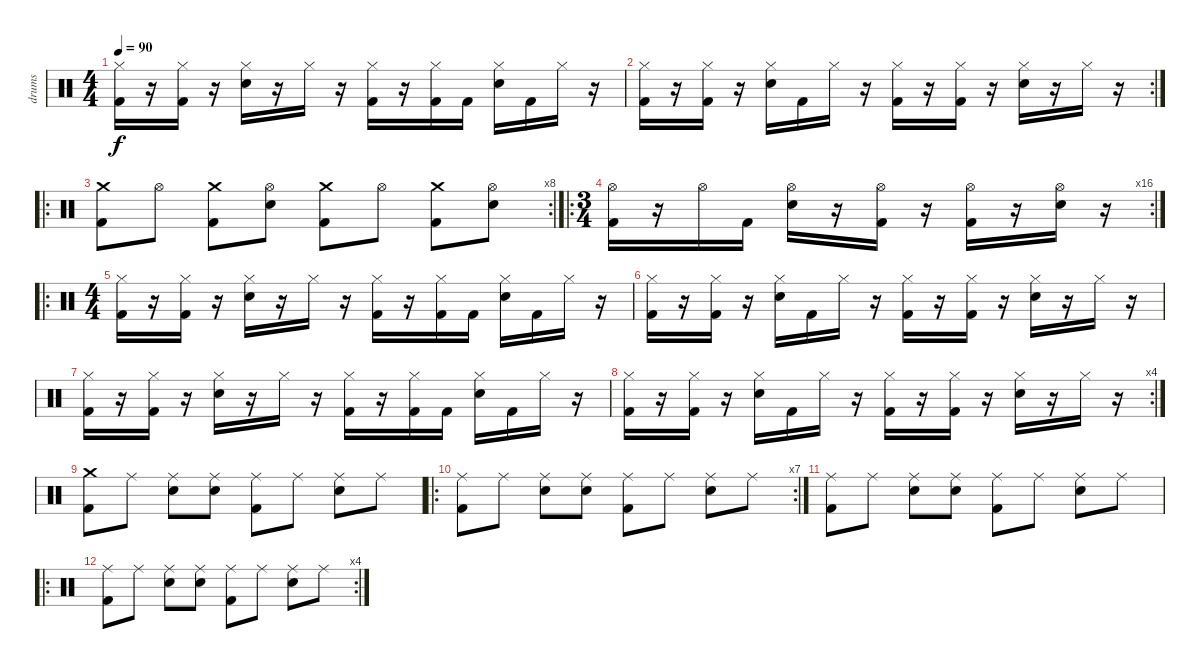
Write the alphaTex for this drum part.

\track ("drums" "drums") {instrument percussion}
\staff {score}
\articulation defaults
\ts (4 4)
\tempo 90
\clef neutral
\ks c
("Hi-Hat (closed)" "Kick (hit) 2").16{dy f} r.16 ("Hi-Hat (closed)" "Kick (hit) 2").16 r.16 ("Hi-Hat (closed)" "Electric Snare (hit)").16 r.16 "Hi-Hat (closed)".16 r.16 ("Hi-Hat (closed)" "Kick (hit) 2").16 r.16 ("Hi-Hat (closed)" "Kick (hit) 2").16 "Kick (hit) 2".16 ("Hi-Hat (closed)" "Electric Snare (hit)").16 "Kick (hit) 2".16 "Hi-Hat (closed)".16 r.16 |
\rc 2
("Hi-Hat (closed)" "Kick (hit) 2").16 r.16 ("Hi-Hat (closed)" "Kick (hit) 2").16 r.16 ("Hi-Hat (closed)" "Electric Snare (hit)").16 "Kick (hit) 2".16 "Hi-Hat (closed)".16 r.16 ("Hi-Hat (closed)" "Kick (hit) 2").16 r.16 ("Hi-Hat (closed)" "Kick (hit) 2").16 r.16 ("Hi-Hat (closed)" "Electric Snare (hit)").16 r.16 "Hi-Hat (closed)".16 r.16 |
\ro
\rc 8
("Crash medium (hit)" "Kick (hit) 2").8 "Hi-Hat (open)".8 ("Crash medium (hit)" "Kick (hit) 2").8 ("Hi-Hat (open)" "Electric Snare (hit)").8 ("Crash medium (hit)" "Kick (hit) 2").8 "Hi-Hat (open)".8 ("Crash medium (hit)" "Kick (hit) 2").8 ("Hi-Hat (open)" "Electric Snare (hit)").8 |
\ro
\rc 16
\ts (3 4)
("Hi-Hat (open)" "Kick (hit) 2").16 r.16 "Hi-Hat (open)".16 "Kick (hit) 2".16 ("Hi-Hat (open)" "Electric Snare (hit)").16 r.16 ("Hi-Hat (open)" "Kick (hit) 2").16 r.16 ("Hi-Hat (open)" "Kick (hit) 2").16 r.16 ("Hi-Hat (open)" "Electric Snare (hit)").16 r.16 |
\ro
\ts (4 4)
("Hi-Hat (closed)" "Kick (hit) 2").16 r.16 ("Hi-Hat (closed)" "Kick (hit) 2").16 r.16 ("Hi-Hat (closed)" "Electric Snare (hit)").16 r.16 "Hi-Hat (closed)".16 r.16 ("Hi-Hat (closed)" "Kick (hit) 2").16 r.16 ("Hi-Hat (closed)" "Kick (hit) 2").16 "Kick (hit) 2".16 ("Hi-Hat (closed)" "Electric Snare (hit)").16 "Kick (hit) 2".16 "Hi-Hat (closed)".16 r.16 |
("Hi-Hat (closed)" "Kick (hit) 2").16 r.16 ("Hi-Hat (closed)" "Kick (hit) 2").16 r.16 ("Hi-Hat (closed)" "Electric Snare (hit)").16 "Kick (hit) 2".16 "Hi-Hat (closed)".16 r.16 ("Hi-Hat (closed)" "Kick (hit) 2").16 r.16 ("Hi-Hat (closed)" "Kick (hit) 2").16 r.16 ("Hi-Hat (closed)" "Electric Snare (hit)").16 r.16 "Hi-Hat (closed)".16 r.16 |
("Hi-Hat (closed)" "Kick (hit) 2").16 r.16 ("Hi-Hat (closed)" "Kick (hit) 2").16 r.16 ("Hi-Hat (closed)" "Electric Snare (hit)").16 r.16 "Hi-Hat (closed)".16 r.16 ("Hi-Hat (closed)" "Kick (hit) 2").16 r.16 ("Hi-Hat (closed)" "Kick (hit) 2").16 "Kick (hit) 2".16 ("Hi-Hat (closed)" "Electric Snare (hit)").16 "Kick (hit) 2".16 "Hi-Hat (closed)".16 r.16 |
\rc 4
("Hi-Hat (closed)" "Kick (hit) 2").16 r.16 ("Hi-Hat (closed)" "Kick (hit) 2").16 r.16 ("Hi-Hat (closed)" "Electric Snare (hit)").16 "Kick (hit) 2".16 "Hi-Hat (closed)".16 r.16 ("Hi-Hat (closed)" "Kick (hit) 2").16 r.16 ("Hi-Hat (closed)" "Kick (hit) 2").16 r.16 ("Hi-Hat (closed)" "Electric Snare (hit)").16 r.16 "Hi-Hat (closed)".16 r.16 |
("Crash medium (hit)" "Kick (hit) 2").8 "Ride (middle)".8 ("Ride (middle)" "Electric Snare (hit)").8 ("Ride (middle)" "Electric Snare (hit)").8 ("Ride (middle)" "Kick (hit) 2").8 "Ride (middle)".8 ("Ride (middle)" "Electric Snare (hit)").8 "Ride (middle)".8 |
\ro
\rc 7
("Ride (middle)" "Kick (hit) 2").8 "Ride (middle)".8 ("Ride (middle)" "Electric Snare (hit)").8 ("Ride (middle)" "Electric Snare (hit)").8 ("Ride (middle)" "Kick (hit) 2").8 "Ride (middle)".8 ("Ride (middle)" "Electric Snare (hit)").8 "Ride (middle)".8 |
("Ride (middle)" "Kick (hit) 2").8 "Ride (middle)".8 ("Ride (middle)" "Electric Snare (hit)").8 ("Ride (middle)" "Electric Snare (hit)").8 ("Ride (middle)" "Kick (hit) 2").8 "Ride (middle)".8 ("Ride (middle)" "Electric Snare (hit)").8 "Ride (middle)".8 |
\ro
\rc 4
("Ride (middle)" "Kick (hit) 2").8 "Ride (middle)".8 ("Ride (middle)" "Electric Snare (hit)").8 ("Ride (middle)" "Electric Snare (hit)").8 ("Ride (middle)" "Kick (hit) 2").8 "Ride (middle)".8 ("Ride (middle)" "Electric Snare (hit)").8 "Ride (middle)".8
